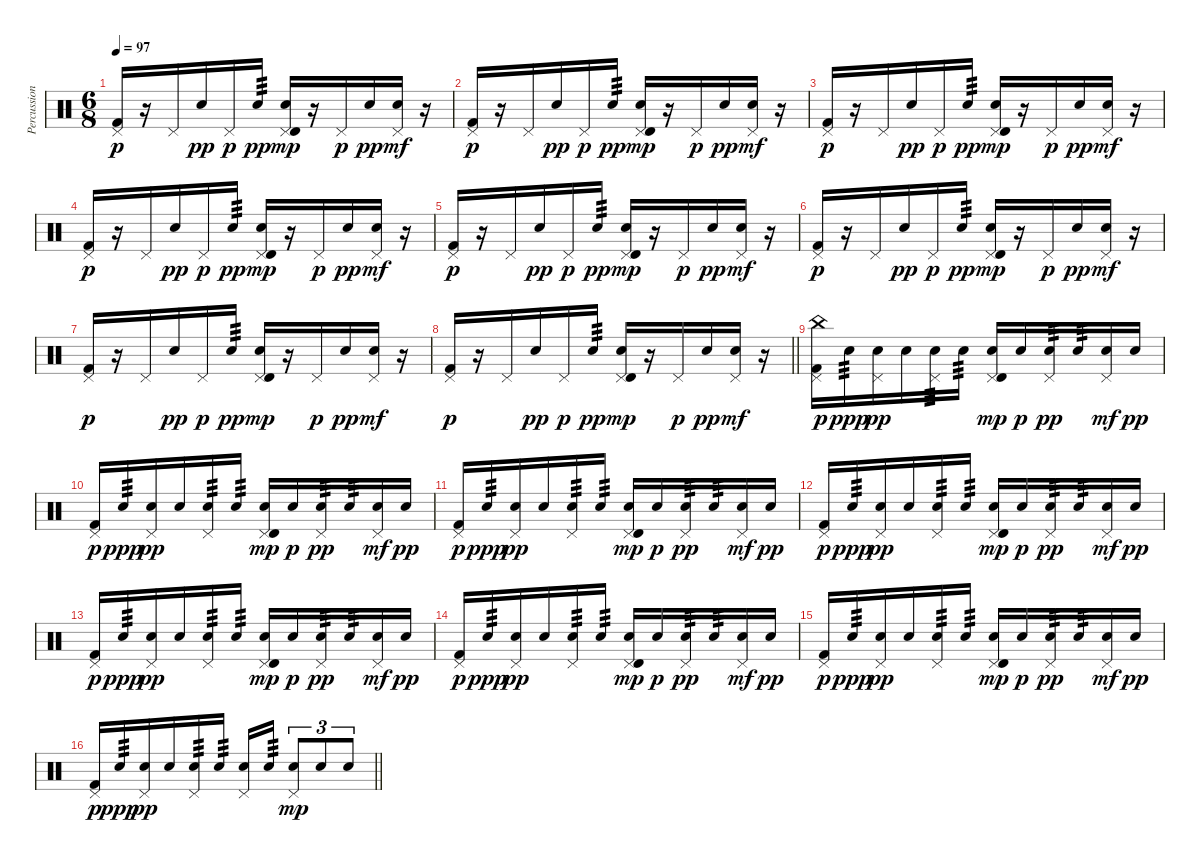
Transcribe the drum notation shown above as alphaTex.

\track ("Percussion" "Percussion") {instrument percussion}
\staff {score}
\articulation defaults
\ts (6 8)
\tempo 97
\clef neutral
\ks c
("Pedal Hi-Hat (hit)" "Kick (hit) 2").16{dy p} r.16 "Pedal Hi-Hat (hit)".16 "Electric Snare (hit)".16{dy pp} "Pedal Hi-Hat (hit)".16{dy p} "Electric Snare (hit)".16{tp 3 dy pp} ("Pedal Hi-Hat (hit)" "Timbale high (hit)" "Electric Snare (hit)").16{dy mp} r.16 "Pedal Hi-Hat (hit)".16{dy p} "Snare (hit) 2".16{dy pp} ("Pedal Hi-Hat (hit)" "Electric Snare (hit)").16{dy mf} r.16 |
("Pedal Hi-Hat (hit)" "Kick (hit) 2").16{dy p} r.16 "Pedal Hi-Hat (hit)".16 "Electric Snare (hit)".16{dy pp} "Pedal Hi-Hat (hit)".16{dy p} "Electric Snare (hit)".16{tp 3 dy pp} ("Pedal Hi-Hat (hit)" "Timbale high (hit)" "Electric Snare (hit)").16{dy mp} r.16 "Pedal Hi-Hat (hit)".16{dy p} "Snare (hit) 2".16{dy pp} ("Pedal Hi-Hat (hit)" "Electric Snare (hit)").16{dy mf} r.16 |
("Pedal Hi-Hat (hit)" "Kick (hit) 2").16{dy p} r.16 "Pedal Hi-Hat (hit)".16 "Electric Snare (hit)".16{dy pp} "Pedal Hi-Hat (hit)".16{dy p} "Electric Snare (hit)".16{tp 3 dy pp} ("Pedal Hi-Hat (hit)" "Timbale high (hit)" "Electric Snare (hit)").16{dy mp} r.16 "Pedal Hi-Hat (hit)".16{dy p} "Snare (hit) 2".16{dy pp} ("Pedal Hi-Hat (hit)" "Electric Snare (hit)").16{dy mf} r.16 |
("Pedal Hi-Hat (hit)" "Kick (hit) 2").16{dy p} r.16 "Pedal Hi-Hat (hit)".16 "Electric Snare (hit)".16{dy pp} "Pedal Hi-Hat (hit)".16{dy p} "Electric Snare (hit)".16{tp 3 dy pp} ("Pedal Hi-Hat (hit)" "Timbale high (hit)" "Electric Snare (hit)").16{dy mp} r.16 "Pedal Hi-Hat (hit)".16{dy p} "Snare (hit) 2".16{dy pp} ("Pedal Hi-Hat (hit)" "Electric Snare (hit)").16{dy mf} r.16 |
("Pedal Hi-Hat (hit)" "Kick (hit) 2").16{dy p} r.16 "Pedal Hi-Hat (hit)".16 "Electric Snare (hit)".16{dy pp} "Pedal Hi-Hat (hit)".16{dy p} "Electric Snare (hit)".16{tp 3 dy pp} ("Pedal Hi-Hat (hit)" "Timbale high (hit)" "Electric Snare (hit)").16{dy mp} r.16 "Pedal Hi-Hat (hit)".16{dy p} "Snare (hit) 2".16{dy pp} ("Pedal Hi-Hat (hit)" "Electric Snare (hit)").16{dy mf} r.16 |
("Pedal Hi-Hat (hit)" "Kick (hit) 2").16{dy p} r.16 "Pedal Hi-Hat (hit)".16 "Electric Snare (hit)".16{dy pp} "Pedal Hi-Hat (hit)".16{dy p} "Electric Snare (hit)".16{tp 3 dy pp} ("Pedal Hi-Hat (hit)" "Timbale high (hit)" "Electric Snare (hit)").16{dy mp} r.16 "Pedal Hi-Hat (hit)".16{dy p} "Snare (hit) 2".16{dy pp} ("Pedal Hi-Hat (hit)" "Electric Snare (hit)").16{dy mf} r.16 |
("Pedal Hi-Hat (hit)" "Kick (hit) 2").16{dy p} r.16 "Pedal Hi-Hat (hit)".16 "Electric Snare (hit)".16{dy pp} "Pedal Hi-Hat (hit)".16{dy p} "Electric Snare (hit)".16{tp 3 dy pp} ("Pedal Hi-Hat (hit)" "Timbale high (hit)" "Electric Snare (hit)").16{dy mp} r.16 "Pedal Hi-Hat (hit)".16{dy p} "Snare (hit) 2".16{dy pp} ("Pedal Hi-Hat (hit)" "Electric Snare (hit)").16{dy mf} r.16 |
\barLineRight lightlight
("Pedal Hi-Hat (hit)" "Kick (hit) 2").16{dy p} r.16 "Pedal Hi-Hat (hit)".16 "Electric Snare (hit)".16{dy pp} "Pedal Hi-Hat (hit)".16{dy p} "Electric Snare (hit)".16{tp 3 dy pp} ("Pedal Hi-Hat (hit)" "Timbale high (hit)" "Electric Snare (hit)").16{dy mp} r.16 "Pedal Hi-Hat (hit)".16{dy p} "Snare (hit) 2".16{dy pp} ("Pedal Hi-Hat (hit)" "Electric Snare (hit)").16{dy mf} r.16 |
("China (hit)" "Pedal Hi-Hat (hit)" "Kick (hit) 2").16{dy p} "Electric Snare (hit)".16{tp 3 dy ppp} ("Pedal Hi-Hat (hit)" "Electric Snare (hit)").16{dy pp} "Electric Snare (hit)".16 ("Pedal Hi-Hat (hit)" "Electric Snare (hit)").16{tp 3} "Electric Snare (hit)".16{tp 3} ("Pedal Hi-Hat (hit)" "Timbale high (hit)" "Electric Snare (hit)").16{dy mp} "Electric Snare (hit)".16{dy p} ("Pedal Hi-Hat (hit)" "Electric Snare (hit)").16{tp 3 dy pp} "Electric Snare (hit)".16{tp 3} ("Pedal Hi-Hat (hit)" "Electric Snare (hit)").16{dy mf} "Electric Snare (hit)".16{dy pp} |
("Pedal Hi-Hat (hit)" "Kick (hit) 2").16{dy p} "Electric Snare (hit)".16{tp 3 dy ppp} ("Pedal Hi-Hat (hit)" "Electric Snare (hit)").16{dy pp} "Electric Snare (hit)".16 ("Pedal Hi-Hat (hit)" "Electric Snare (hit)").16{tp 3} "Electric Snare (hit)".16{tp 3} ("Pedal Hi-Hat (hit)" "Timbale high (hit)" "Electric Snare (hit)").16{dy mp} "Electric Snare (hit)".16{dy p} ("Pedal Hi-Hat (hit)" "Electric Snare (hit)").16{tp 3 dy pp} "Electric Snare (hit)".16{tp 3} ("Pedal Hi-Hat (hit)" "Electric Snare (hit)").16{dy mf} "Electric Snare (hit)".16{dy pp} |
("Pedal Hi-Hat (hit)" "Kick (hit) 2").16{dy p} "Electric Snare (hit)".16{tp 3 dy ppp} ("Pedal Hi-Hat (hit)" "Electric Snare (hit)").16{dy pp} "Electric Snare (hit)".16 ("Pedal Hi-Hat (hit)" "Electric Snare (hit)").16{tp 3} "Electric Snare (hit)".16{tp 3} ("Pedal Hi-Hat (hit)" "Timbale high (hit)" "Electric Snare (hit)").16{dy mp} "Electric Snare (hit)".16{dy p} ("Pedal Hi-Hat (hit)" "Electric Snare (hit)").16{tp 3 dy pp} "Electric Snare (hit)".16{tp 3} ("Pedal Hi-Hat (hit)" "Electric Snare (hit)").16{dy mf} "Electric Snare (hit)".16{dy pp} |
("Pedal Hi-Hat (hit)" "Kick (hit) 2").16{dy p} "Electric Snare (hit)".16{tp 3 dy ppp} ("Pedal Hi-Hat (hit)" "Electric Snare (hit)").16{dy pp} "Electric Snare (hit)".16 ("Pedal Hi-Hat (hit)" "Electric Snare (hit)").16{tp 3} "Electric Snare (hit)".16{tp 3} ("Pedal Hi-Hat (hit)" "Timbale high (hit)" "Electric Snare (hit)").16{dy mp} "Electric Snare (hit)".16{dy p} ("Pedal Hi-Hat (hit)" "Electric Snare (hit)").16{tp 3 dy pp} "Electric Snare (hit)".16{tp 3} ("Pedal Hi-Hat (hit)" "Electric Snare (hit)").16{dy mf} "Electric Snare (hit)".16{dy pp} |
("Pedal Hi-Hat (hit)" "Kick (hit) 2").16{dy p} "Electric Snare (hit)".16{tp 3 dy ppp} ("Pedal Hi-Hat (hit)" "Electric Snare (hit)").16{dy pp} "Electric Snare (hit)".16 ("Pedal Hi-Hat (hit)" "Electric Snare (hit)").16{tp 3} "Electric Snare (hit)".16{tp 3} ("Pedal Hi-Hat (hit)" "Timbale high (hit)" "Electric Snare (hit)").16{dy mp} "Electric Snare (hit)".16{dy p} ("Pedal Hi-Hat (hit)" "Electric Snare (hit)").16{tp 3 dy pp} "Electric Snare (hit)".16{tp 3} ("Pedal Hi-Hat (hit)" "Electric Snare (hit)").16{dy mf} "Electric Snare (hit)".16{dy pp} |
("Pedal Hi-Hat (hit)" "Kick (hit) 2").16{dy p} "Electric Snare (hit)".16{tp 3 dy ppp} ("Pedal Hi-Hat (hit)" "Electric Snare (hit)").16{dy pp} "Electric Snare (hit)".16 ("Pedal Hi-Hat (hit)" "Electric Snare (hit)").16{tp 3} "Electric Snare (hit)".16{tp 3} ("Pedal Hi-Hat (hit)" "Timbale high (hit)" "Electric Snare (hit)").16{dy mp} "Electric Snare (hit)".16{dy p} ("Pedal Hi-Hat (hit)" "Electric Snare (hit)").16{tp 3 dy pp} "Electric Snare (hit)".16{tp 3} ("Pedal Hi-Hat (hit)" "Electric Snare (hit)").16{dy mf} "Electric Snare (hit)".16{dy pp} |
("Pedal Hi-Hat (hit)" "Kick (hit) 2").16{dy p} "Electric Snare (hit)".16{tp 3 dy ppp} ("Pedal Hi-Hat (hit)" "Electric Snare (hit)").16{dy pp} "Electric Snare (hit)".16 ("Pedal Hi-Hat (hit)" "Electric Snare (hit)").16{tp 3} "Electric Snare (hit)".16{tp 3} ("Pedal Hi-Hat (hit)" "Timbale high (hit)" "Electric Snare (hit)").16{dy mp} "Electric Snare (hit)".16{dy p} ("Pedal Hi-Hat (hit)" "Electric Snare (hit)").16{tp 3 dy pp} "Electric Snare (hit)".16{tp 3} ("Pedal Hi-Hat (hit)" "Electric Snare (hit)").16{dy mf} "Electric Snare (hit)".16{dy pp} |
\barLineRight lightlight
("Pedal Hi-Hat (hit)" "Kick (hit) 2").16{dy p} "Electric Snare (hit)".16{tp 3 dy ppp} ("Pedal Hi-Hat (hit)" "Electric Snare (hit)").16{dy pp} "Electric Snare (hit)".16 ("Pedal Hi-Hat (hit)" "Electric Snare (hit)").16{tp 3} "Electric Snare (hit)".16{tp 3} ("Pedal Hi-Hat (hit)" "Electric Snare (hit)").16 "Electric Snare (hit)".16{tp 3} ("Pedal Hi-Hat (hit)" "Electric Snare (hit)").8{tu (3 2) dy mp} "Electric Snare (hit)".8{tu (3 2)} "Electric Snare (hit)".8{tu (3 2)}
